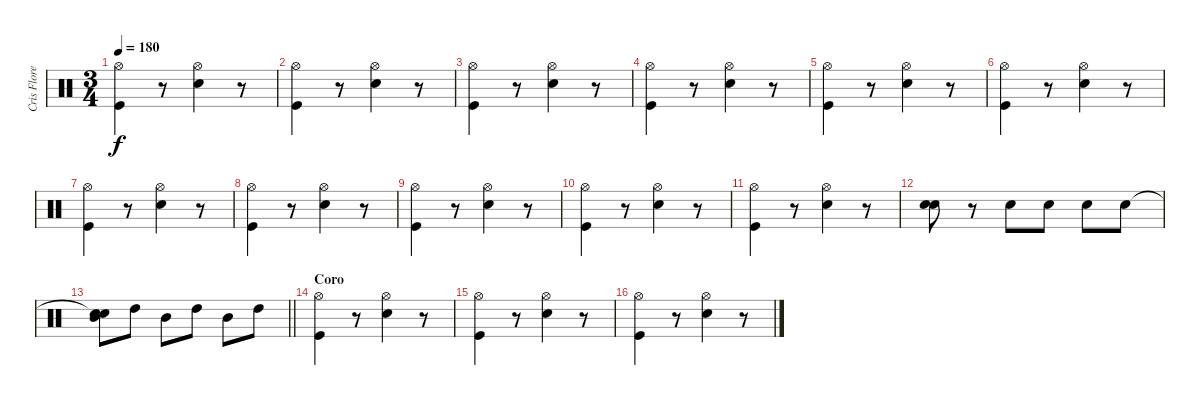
\track ("Cris Flores" "Cris Flore") {instrument percussion}
\staff {score}
\articulation defaults
\ts (3 4)
\tempo 180
\clef neutral
\ks c
("Kick (hit)" "Hi-Hat (open)").4{dy f} r.8 ("Snare (hit) 2" "Hi-Hat (open)").4 r.8 |
("Kick (hit)" "Hi-Hat (open)").4 r.8 ("Snare (hit) 2" "Hi-Hat (open)").4 r.8 |
("Kick (hit)" "Hi-Hat (open)").4 r.8 ("Snare (hit) 2" "Hi-Hat (open)").4 r.8 |
("Kick (hit)" "Hi-Hat (open)").4 r.8 ("Snare (hit) 2" "Hi-Hat (open)").4 r.8 |
("Kick (hit)" "Hi-Hat (open)").4 r.8 ("Snare (hit) 2" "Hi-Hat (open)").4 r.8 |
("Kick (hit)" "Hi-Hat (open)").4 r.8 ("Snare (hit) 2" "Hi-Hat (open)").4 r.8 |
("Kick (hit)" "Hi-Hat (open)").4 r.8 ("Snare (hit) 2" "Hi-Hat (open)").4 r.8 |
("Kick (hit)" "Hi-Hat (open)").4 r.8 ("Snare (hit) 2" "Hi-Hat (open)").4 r.8 |
("Kick (hit)" "Hi-Hat (open)").4 r.8 ("Snare (hit) 2" "Hi-Hat (open)").4 r.8 |
("Kick (hit)" "Hi-Hat (open)").4 r.8 ("Snare (hit) 2" "Hi-Hat (open)").4 r.8 |
("Kick (hit)" "Hi-Hat (open)").4 r.8 ("Snare (hit) 2" "Hi-Hat (open)").4 r.8 |
("Electric Snare (hit)" "Snare (hit) 2").8 r.8 "Snare (hit) 2".8 "Snare (hit) 2".8 "Snare (hit) 2".8 "Snare (hit) 2".8 |
\barLineRight lightlight
("Snare (hit)"{t} "Mid Tom (hit)" "Snare (hit)").8 "High Tom (hit)".8 "Mid Tom (hit)".8 "High Tom (hit)".8 "Mid Tom (hit)".8 "High Tom (hit)".8 |
\section ("" "Coro")
("Kick (hit)" "Hi-Hat (open)").4 r.8 ("Snare (hit) 2" "Hi-Hat (open)").4 r.8 |
("Kick (hit)" "Hi-Hat (open)").4 r.8 ("Snare (hit) 2" "Hi-Hat (open)").4 r.8 |
("Kick (hit)" "Hi-Hat (open)").4 r.8 ("Snare (hit) 2" "Hi-Hat (open)").4 r.8
